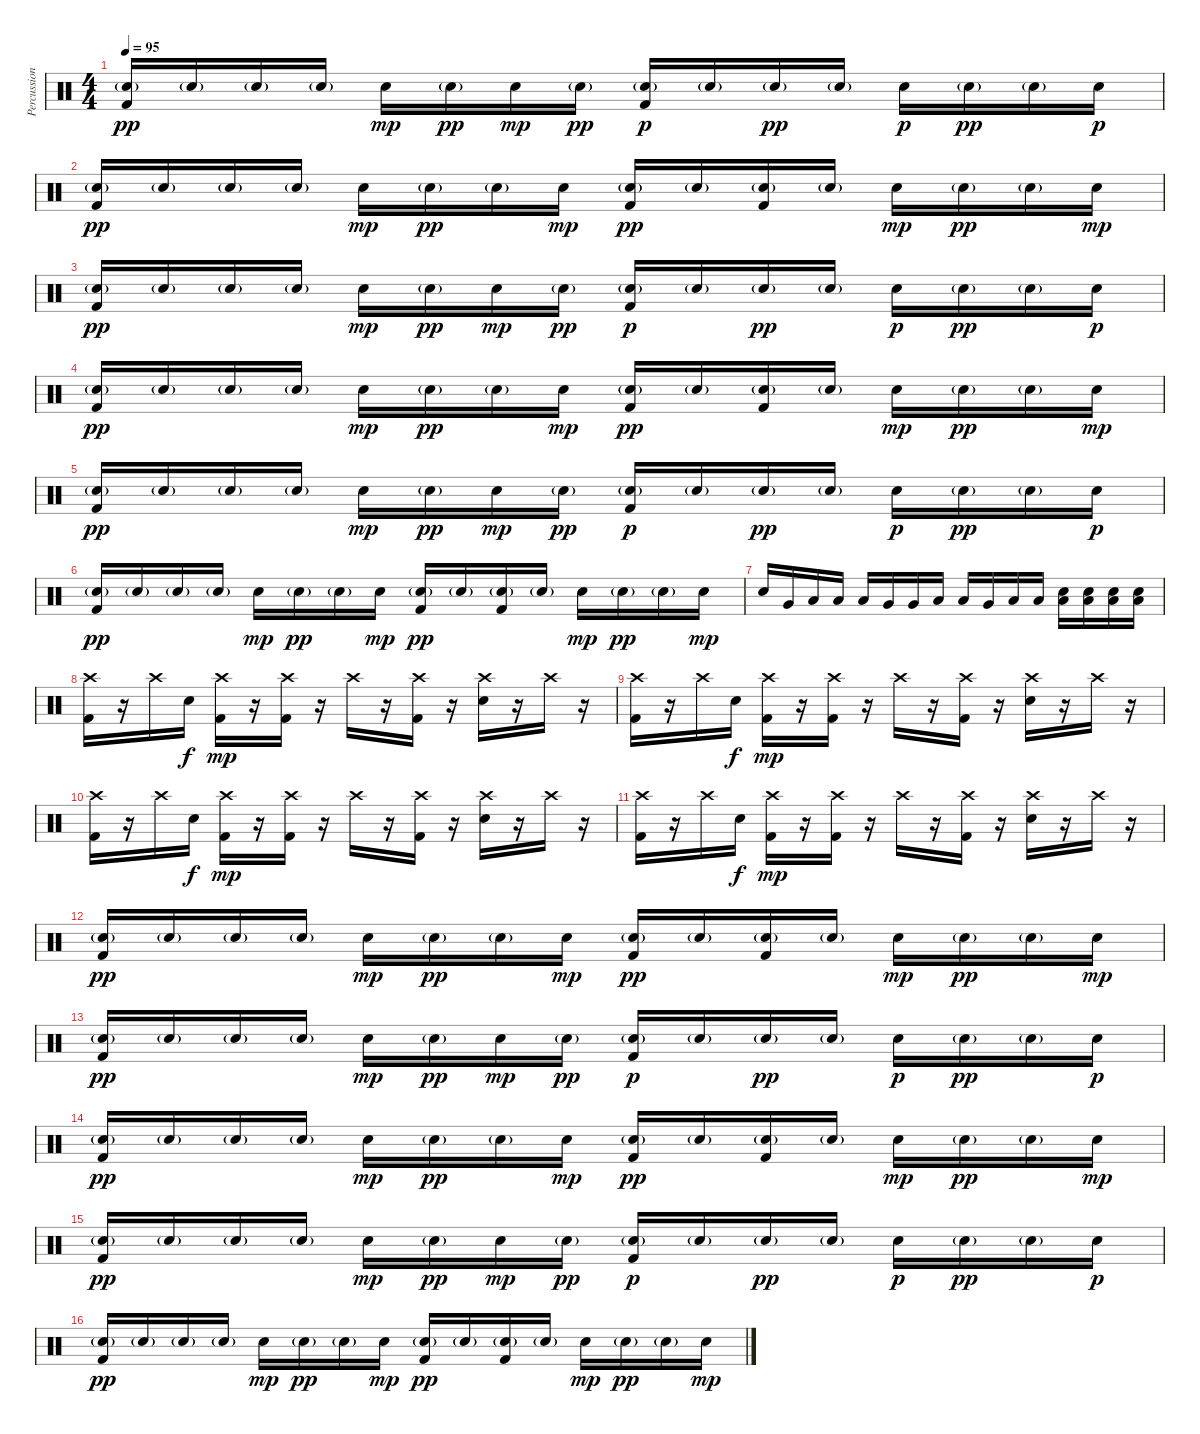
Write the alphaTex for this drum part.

\track ("Percussions" "Percussion") {instrument percussion}
\staff {score}
\articulation defaults
\ts (4 4)
\tempo 95
\clef neutral
\ks c
("Kick (hit) 2" "Snare (hit) 2"{g}).16{dy pp} "Snare (hit) 2"{g}.16 "Snare (hit) 2"{g}.16 "Snare (hit) 2"{g}.16 "Snare (hit) 2".16{dy mp} "Snare (hit) 2"{g}.16{dy pp} "Snare (hit) 2".16{dy mp} "Snare (hit) 2"{g}.16{dy pp} ("Kick (hit) 2" "Snare (hit) 2"{g}).16{dy p} "Snare (hit) 2"{g}.16 "Snare (hit) 2"{g}.16{dy pp} "Snare (hit) 2"{g}.16 "Snare (hit) 2".16{dy p} "Snare (hit) 2"{g}.16{dy pp} "Snare (hit) 2"{g}.16 "Snare (hit) 2".16{dy p} |
("Kick (hit) 2" "Snare (hit) 2"{g}).16{dy pp} "Snare (hit) 2"{g}.16 "Snare (hit) 2"{g}.16 "Snare (hit) 2"{g}.16 "Snare (hit) 2".16{dy mp} "Snare (hit) 2"{g}.16{dy pp} "Snare (hit) 2"{g}.16 "Snare (hit) 2".16{dy mp} ("Kick (hit) 2" "Snare (hit) 2"{g}).16{dy pp} "Snare (hit) 2"{g}.16 ("Kick (hit) 2" "Snare (hit) 2"{g}).16 "Snare (hit) 2"{g}.16 "Snare (hit) 2".16{dy mp} "Snare (hit) 2"{g}.16{dy pp} "Snare (hit) 2"{g}.16 "Snare (hit) 2".16{dy mp} |
("Kick (hit) 2" "Snare (hit) 2"{g}).16{dy pp} "Snare (hit) 2"{g}.16 "Snare (hit) 2"{g}.16 "Snare (hit) 2"{g}.16 "Snare (hit) 2".16{dy mp} "Snare (hit) 2"{g}.16{dy pp} "Snare (hit) 2".16{dy mp} "Snare (hit) 2"{g}.16{dy pp} ("Kick (hit) 2" "Snare (hit) 2"{g}).16{dy p} "Snare (hit) 2"{g}.16 "Snare (hit) 2"{g}.16{dy pp} "Snare (hit) 2"{g}.16 "Snare (hit) 2".16{dy p} "Snare (hit) 2"{g}.16{dy pp} "Snare (hit) 2"{g}.16 "Snare (hit) 2".16{dy p} |
("Kick (hit) 2" "Snare (hit) 2"{g}).16{dy pp} "Snare (hit) 2"{g}.16 "Snare (hit) 2"{g}.16 "Snare (hit) 2"{g}.16 "Snare (hit) 2".16{dy mp} "Snare (hit) 2"{g}.16{dy pp} "Snare (hit) 2"{g}.16 "Snare (hit) 2".16{dy mp} ("Kick (hit) 2" "Snare (hit) 2"{g}).16{dy pp} "Snare (hit) 2"{g}.16 ("Kick (hit) 2" "Snare (hit) 2"{g}).16 "Snare (hit) 2"{g}.16 "Snare (hit) 2".16{dy mp} "Snare (hit) 2"{g}.16{dy pp} "Snare (hit) 2"{g}.16 "Snare (hit) 2".16{dy mp} |
("Kick (hit) 2" "Snare (hit) 2"{g}).16{dy pp} "Snare (hit) 2"{g}.16 "Snare (hit) 2"{g}.16 "Snare (hit) 2"{g}.16 "Snare (hit) 2".16{dy mp} "Snare (hit) 2"{g}.16{dy pp} "Snare (hit) 2".16{dy mp} "Snare (hit) 2"{g}.16{dy pp} ("Kick (hit) 2" "Snare (hit) 2"{g}).16{dy p} "Snare (hit) 2"{g}.16 "Snare (hit) 2"{g}.16{dy pp} "Snare (hit) 2"{g}.16 "Snare (hit) 2".16{dy p} "Snare (hit) 2"{g}.16{dy pp} "Snare (hit) 2"{g}.16 "Snare (hit) 2".16{dy p} |
("Kick (hit) 2" "Snare (hit) 2"{g}).16{dy pp} "Snare (hit) 2"{g}.16 "Snare (hit) 2"{g}.16 "Snare (hit) 2"{g}.16 "Snare (hit) 2".16{dy mp} "Snare (hit) 2"{g}.16{dy pp} "Snare (hit) 2"{g}.16 "Snare (hit) 2".16{dy mp} ("Kick (hit) 2" "Snare (hit) 2"{g}).16{dy pp} "Snare (hit) 2"{g}.16 ("Kick (hit) 2" "Snare (hit) 2"{g}).16 "Snare (hit) 2"{g}.16 "Snare (hit) 2".16{dy mp} "Snare (hit) 2"{g}.16{dy pp} "Snare (hit) 2"{g}.16 "Snare (hit) 2".16{dy mp} |
"Snare (hit) 2".16 "Very Low Tom (hit)".16 "Low Tom (hit)".16 "Low Tom (hit)".16 "Low Tom (hit)".16 "Very Low Tom (hit)".16 "Very Low Tom (hit)".16 "Low Tom (hit)".16 "Low Tom (hit)".16 "Very Low Tom (hit)".16 "Low Tom (hit)".16 "Low Tom (hit)".16 ("Low Tom (hit)" "Snare (hit) 2").16 ("Low Tom (hit)" "Snare (hit) 2").16 ("Low Tom (hit)" "Snare (hit) 2").16 ("Low Tom (hit)" "Snare (hit) 2").16 |
("Crash high (hit)" "Kick (hit) 2").16 r.16 "Crash high (hit)".16 "Snare (hit) 2".16{dy f} ("Crash high (hit)" "Kick (hit) 2").16{dy mp} r.16 ("Crash high (hit)" "Kick (hit) 2").16 r.16 "Crash high (hit)".16 r.16 ("Crash high (hit)" "Kick (hit) 2").16 r.16 ("Crash high (hit)" "Snare (hit) 2").16 r.16 "Crash high (hit)".16 r.16 |
("Crash high (hit)" "Kick (hit) 2").16 r.16 "Crash high (hit)".16 "Snare (hit) 2".16{dy f} ("Crash high (hit)" "Kick (hit) 2").16{dy mp} r.16 ("Crash high (hit)" "Kick (hit) 2").16 r.16 "Crash high (hit)".16 r.16 ("Crash high (hit)" "Kick (hit) 2").16 r.16 ("Crash high (hit)" "Snare (hit) 2").16 r.16 "Crash high (hit)".16 r.16 |
("Crash high (hit)" "Kick (hit) 2").16 r.16 "Crash high (hit)".16 "Snare (hit) 2".16{dy f} ("Crash high (hit)" "Kick (hit) 2").16{dy mp} r.16 ("Crash high (hit)" "Kick (hit) 2").16 r.16 "Crash high (hit)".16 r.16 ("Crash high (hit)" "Kick (hit) 2").16 r.16 ("Crash high (hit)" "Snare (hit) 2").16 r.16 "Crash high (hit)".16 r.16 |
("Crash high (hit)" "Kick (hit) 2").16 r.16 "Crash high (hit)".16 "Snare (hit) 2".16{dy f} ("Crash high (hit)" "Kick (hit) 2").16{dy mp} r.16 ("Crash high (hit)" "Kick (hit) 2").16 r.16 "Crash high (hit)".16 r.16 ("Crash high (hit)" "Kick (hit) 2").16 r.16 ("Crash high (hit)" "Snare (hit) 2").16 r.16 "Crash high (hit)".16 r.16 |
("Kick (hit) 2" "Snare (hit) 2"{g}).16{dy pp} "Snare (hit) 2"{g}.16 "Snare (hit) 2"{g}.16 "Snare (hit) 2"{g}.16 "Snare (hit) 2".16{dy mp} "Snare (hit) 2"{g}.16{dy pp} "Snare (hit) 2"{g}.16 "Snare (hit) 2".16{dy mp} ("Kick (hit) 2" "Snare (hit) 2"{g}).16{dy pp} "Snare (hit) 2"{g}.16 ("Kick (hit) 2" "Snare (hit) 2"{g}).16 "Snare (hit) 2"{g}.16 "Snare (hit) 2".16{dy mp} "Snare (hit) 2"{g}.16{dy pp} "Snare (hit) 2"{g}.16 "Snare (hit) 2".16{dy mp} |
("Kick (hit) 2" "Snare (hit) 2"{g}).16{dy pp} "Snare (hit) 2"{g}.16 "Snare (hit) 2"{g}.16 "Snare (hit) 2"{g}.16 "Snare (hit) 2".16{dy mp} "Snare (hit) 2"{g}.16{dy pp} "Snare (hit) 2".16{dy mp} "Snare (hit) 2"{g}.16{dy pp} ("Kick (hit) 2" "Snare (hit) 2"{g}).16{dy p} "Snare (hit) 2"{g}.16 "Snare (hit) 2"{g}.16{dy pp} "Snare (hit) 2"{g}.16 "Snare (hit) 2".16{dy p} "Snare (hit) 2"{g}.16{dy pp} "Snare (hit) 2"{g}.16 "Snare (hit) 2".16{dy p} |
("Kick (hit) 2" "Snare (hit) 2"{g}).16{dy pp} "Snare (hit) 2"{g}.16 "Snare (hit) 2"{g}.16 "Snare (hit) 2"{g}.16 "Snare (hit) 2".16{dy mp} "Snare (hit) 2"{g}.16{dy pp} "Snare (hit) 2"{g}.16 "Snare (hit) 2".16{dy mp} ("Kick (hit) 2" "Snare (hit) 2"{g}).16{dy pp} "Snare (hit) 2"{g}.16 ("Kick (hit) 2" "Snare (hit) 2"{g}).16 "Snare (hit) 2"{g}.16 "Snare (hit) 2".16{dy mp} "Snare (hit) 2"{g}.16{dy pp} "Snare (hit) 2"{g}.16 "Snare (hit) 2".16{dy mp} |
("Kick (hit) 2" "Snare (hit) 2"{g}).16{dy pp} "Snare (hit) 2"{g}.16 "Snare (hit) 2"{g}.16 "Snare (hit) 2"{g}.16 "Snare (hit) 2".16{dy mp} "Snare (hit) 2"{g}.16{dy pp} "Snare (hit) 2".16{dy mp} "Snare (hit) 2"{g}.16{dy pp} ("Kick (hit) 2" "Snare (hit) 2"{g}).16{dy p} "Snare (hit) 2"{g}.16 "Snare (hit) 2"{g}.16{dy pp} "Snare (hit) 2"{g}.16 "Snare (hit) 2".16{dy p} "Snare (hit) 2"{g}.16{dy pp} "Snare (hit) 2"{g}.16 "Snare (hit) 2".16{dy p} |
("Kick (hit) 2" "Snare (hit) 2"{g}).16{dy pp} "Snare (hit) 2"{g}.16 "Snare (hit) 2"{g}.16 "Snare (hit) 2"{g}.16 "Snare (hit) 2".16{dy mp} "Snare (hit) 2"{g}.16{dy pp} "Snare (hit) 2"{g}.16 "Snare (hit) 2".16{dy mp} ("Kick (hit) 2" "Snare (hit) 2"{g}).16{dy pp} "Snare (hit) 2"{g}.16 ("Kick (hit) 2" "Snare (hit) 2"{g}).16 "Snare (hit) 2"{g}.16 "Snare (hit) 2".16{dy mp} "Snare (hit) 2"{g}.16{dy pp} "Snare (hit) 2"{g}.16 "Snare (hit) 2".16{dy mp}
